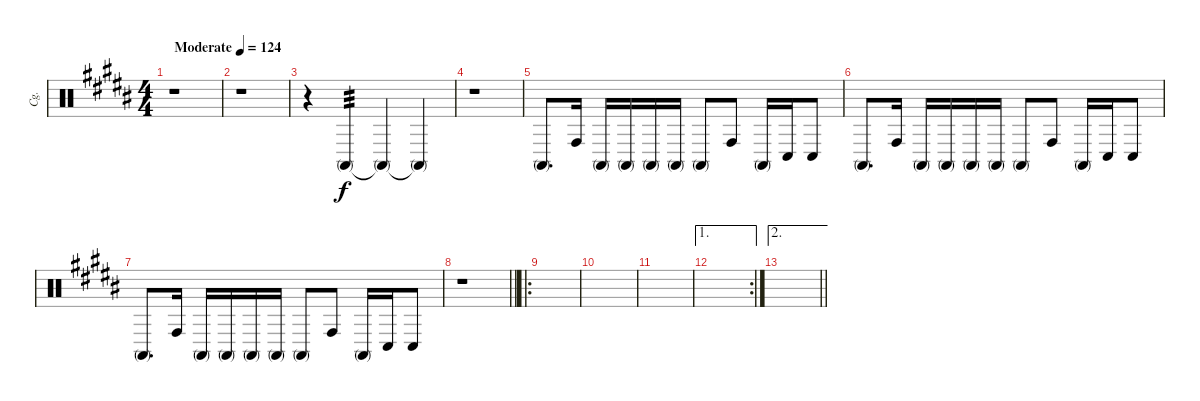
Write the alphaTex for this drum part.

\track ("Cg." "Cg.") {instrument percussion}
\staff {score}
\articulation defaults
\ts (4 4)
\tempo (124 "Moderate")
\clef neutral
\ks b
r.1{dy f} |
r.1 |
r.4{volume 0} "Conga high (mute)".4{tp 3 volume 16} "Conga high (mute)"{t}.4 "Conga high (mute)"{t}.4{volume 0} |
r.1 |
"Conga high (mute)".8{d volume 14} "Conga high (hit)".16 "Conga high (mute)".16 "Conga high (mute)".16 "Conga high (mute)".16 "Conga high (mute)".16 "Conga high (mute)".8 "Conga high (hit)".8 "Conga high (mute)".16 "Conga low (hit)".16 "Conga low (hit)".8 |
"Conga high (mute)".8{d} "Conga high (hit)".16 "Conga high (mute)".16 "Conga high (mute)".16 "Conga high (mute)".16 "Conga high (mute)".16 "Conga high (mute)".8 "Conga high (hit)".8 "Conga high (mute)".16 "Conga low (hit)".16 "Conga low (hit)".8 |
"Conga high (mute)".8{d} "Conga high (hit)".16 "Conga high (mute)".16 "Conga high (mute)".16 "Conga high (mute)".16 "Conga high (mute)".16 "Conga high (mute)".8 "Conga high (hit)".8 "Conga high (mute)".16 "Conga low (hit)".16 "Conga low (hit)".8 |
\barLineRight lightlight
r.1 |
\ro
|
|
|
\ae 1
\rc 2
|
\ae 2
\barLineRight lightlight
